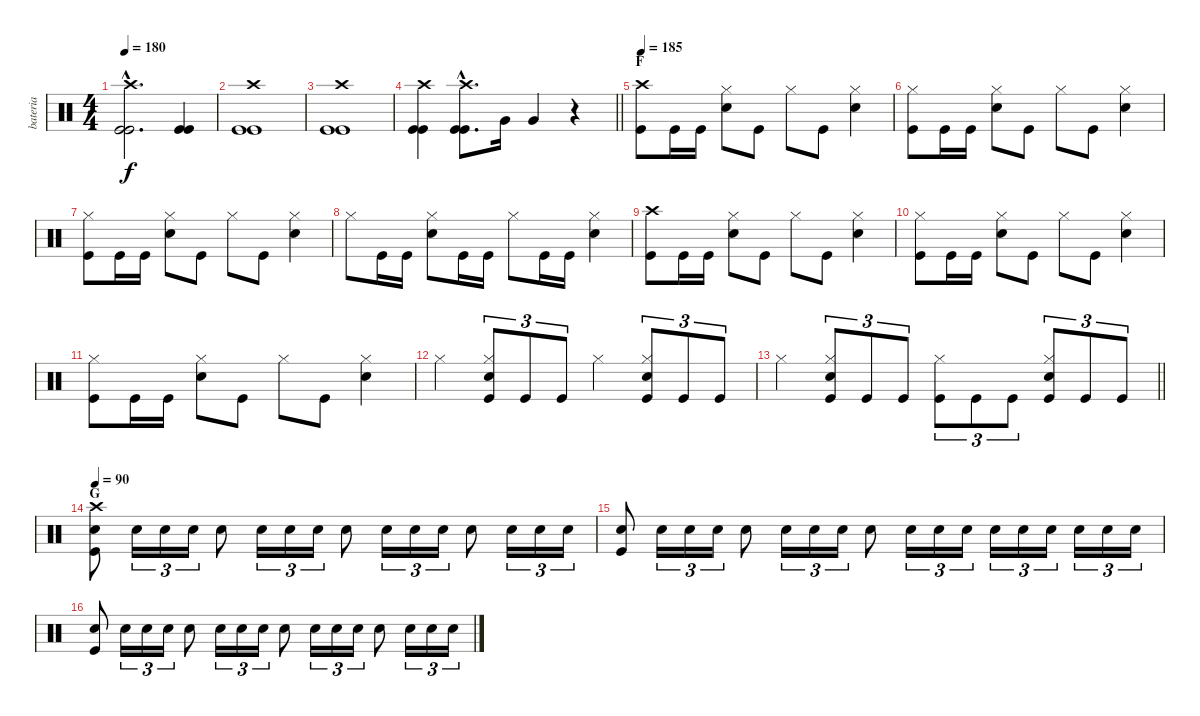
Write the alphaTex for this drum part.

\track ("bateria" "bateria") {instrument percussion}
\staff {score}
\articulation defaults
\ts (4 4)
\tempo 180
\clef neutral
\ks c
("Crash high (hit)"{hac} "Kick (hit)"{hac} "Kick (hit)"{hac}).2{d dy f} ("Kick (hit)" "Kick (hit)").4 |
("Crash high (hit)" "Kick (hit)" "Kick (hit)").1 |
("Crash high (hit)" "Kick (hit)" "Kick (hit)").1 |
\barLineRight lightlight
("Crash high (hit)" "Kick (hit)" "Kick (hit)").4 ("Crash high (hit)"{hac} "Kick (hit)"{hac} "Kick (hit)"{hac}).8{d} "Very Low Tom (hit)".16 "Very Low Tom (hit)".4 r.4 |
\section ("" "F")
\tempo 185
("Crash high (hit)" "Kick (hit)").8 "Kick (hit)".16 "Kick (hit)".16 ("Hi-Hat (closed)" "Snare (hit) 2").8 "Kick (hit)".8 "Hi-Hat (closed)".8 "Kick (hit)".8 ("Hi-Hat (closed)" "Snare (hit) 2").4 |
("Hi-Hat (closed)" "Kick (hit)").8 "Kick (hit)".16 "Kick (hit)".16 ("Hi-Hat (closed)" "Snare (hit) 2").8 "Kick (hit)".8 "Hi-Hat (closed)".8 "Kick (hit)".8 ("Hi-Hat (closed)" "Snare (hit) 2").4 |
("Hi-Hat (closed)" "Kick (hit)").8 "Kick (hit)".16 "Kick (hit)".16 ("Hi-Hat (closed)" "Snare (hit) 2").8 "Kick (hit)".8 "Hi-Hat (closed)".8 "Kick (hit)".8 ("Hi-Hat (closed)" "Snare (hit) 2").4 |
"Hi-Hat (closed)".8 "Kick (hit)".16 "Kick (hit)".16 ("Hi-Hat (closed)" "Snare (hit) 2").8 "Kick (hit)".16 "Kick (hit)".16 "Hi-Hat (closed)".8 "Kick (hit)".16 "Kick (hit)".16 ("Hi-Hat (closed)" "Snare (hit) 2").4 |
("Crash high (hit)" "Kick (hit)").8 "Kick (hit)".16 "Kick (hit)".16 ("Hi-Hat (closed)" "Snare (hit) 2").8 "Kick (hit)".8 "Hi-Hat (closed)".8 "Kick (hit)".8 ("Hi-Hat (closed)" "Snare (hit) 2").4 |
("Hi-Hat (closed)" "Kick (hit)").8 "Kick (hit)".16 "Kick (hit)".16 ("Hi-Hat (closed)" "Snare (hit) 2").8 "Kick (hit)".8 "Hi-Hat (closed)".8 "Kick (hit)".8 ("Hi-Hat (closed)" "Snare (hit) 2").4 |
("Hi-Hat (closed)" "Kick (hit)").8 "Kick (hit)".16 "Kick (hit)".16 ("Hi-Hat (closed)" "Snare (hit) 2").8 "Kick (hit)".8 "Hi-Hat (closed)".8 "Kick (hit)".8 ("Hi-Hat (closed)" "Snare (hit) 2").4 |
"Hi-Hat (closed)".4 ("Hi-Hat (closed)" "Snare (hit) 2" "Kick (hit)").8{tu (3 2)} "Kick (hit)".8{tu (3 2)} "Kick (hit)".8{tu (3 2)} "Hi-Hat (closed)".4 ("Hi-Hat (closed)" "Snare (hit) 2" "Kick (hit)").8{tu (3 2)} "Kick (hit)".8{tu (3 2)} "Kick (hit)".8{tu (3 2)} |
\barLineRight lightlight "Hi-Hat (closed)".4
("Hi-Hat (closed)" "Snare (hit) 2" "Kick (hit)").8{tu (3 2)} "Kick (hit)".8{tu (3 2)} "Kick (hit)".8{tu (3 2)} ("Hi-Hat (closed)" "Kick (hit)").8{tu (3 2)} "Kick (hit)".8{tu (3 2)} "Kick (hit)".8{tu (3 2)} ("Hi-Hat (closed)" "Snare (hit) 2" "Kick (hit)").8{tu (3 2)} "Kick (hit)".8{tu (3 2)} "Kick (hit)".8{tu (3 2)} |
\section ("" "G")
\tempo 90
("Crash high (hit)" "Snare (hit) 2" "Kick (hit)").8 "Snare (hit) 2".16{tu (3 2)} "Snare (hit) 2".16{tu (3 2)} "Snare (hit) 2".16{tu (3 2)} "Snare (hit) 2".8 "Snare (hit) 2".16{tu (3 2)} "Snare (hit) 2".16{tu (3 2)} "Snare (hit) 2".16{tu (3 2)} "Snare (hit) 2".8 "Snare (hit) 2".16{tu (3 2)} "Snare (hit) 2".16{tu (3 2)} "Snare (hit) 2".16{tu (3 2)} "Snare (hit) 2".8 "Snare (hit) 2".16{tu (3 2)} "Snare (hit) 2".16{tu (3 2)} "Snare (hit) 2".16{tu (3 2)} |
("Snare (hit) 2" "Kick (hit)").8 "Snare (hit) 2".16{tu (3 2)} "Snare (hit) 2".16{tu (3 2)} "Snare (hit) 2".16{tu (3 2)} "Snare (hit) 2".8 "Snare (hit) 2".16{tu (3 2)} "Snare (hit) 2".16{tu (3 2)} "Snare (hit) 2".16{tu (3 2)} "Snare (hit) 2".8 "Snare (hit) 2".16{tu (3 2)} "Snare (hit) 2".16{tu (3 2)} "Snare (hit) 2".16{tu (3 2)} "Snare (hit) 2".16{tu (3 2)} "Snare (hit) 2".16{tu (3 2)} "Snare (hit) 2".16{tu (3 2)} "Snare (hit) 2".16{tu (3 2)} "Snare (hit) 2".16{tu (3 2)} "Snare (hit) 2".16{tu (3 2)} |
("Snare (hit) 2" "Kick (hit)").8 "Snare (hit) 2".16{tu (3 2)} "Snare (hit) 2".16{tu (3 2)} "Snare (hit) 2".16{tu (3 2)} "Snare (hit) 2".8 "Snare (hit) 2".16{tu (3 2)} "Snare (hit) 2".16{tu (3 2)} "Snare (hit) 2".16{tu (3 2)} "Snare (hit) 2".8 "Snare (hit) 2".16{tu (3 2)} "Snare (hit) 2".16{tu (3 2)} "Snare (hit) 2".16{tu (3 2)} "Snare (hit) 2".8 "Snare (hit) 2".16{tu (3 2)} "Snare (hit) 2".16{tu (3 2)} "Snare (hit) 2".16{tu (3 2)}
